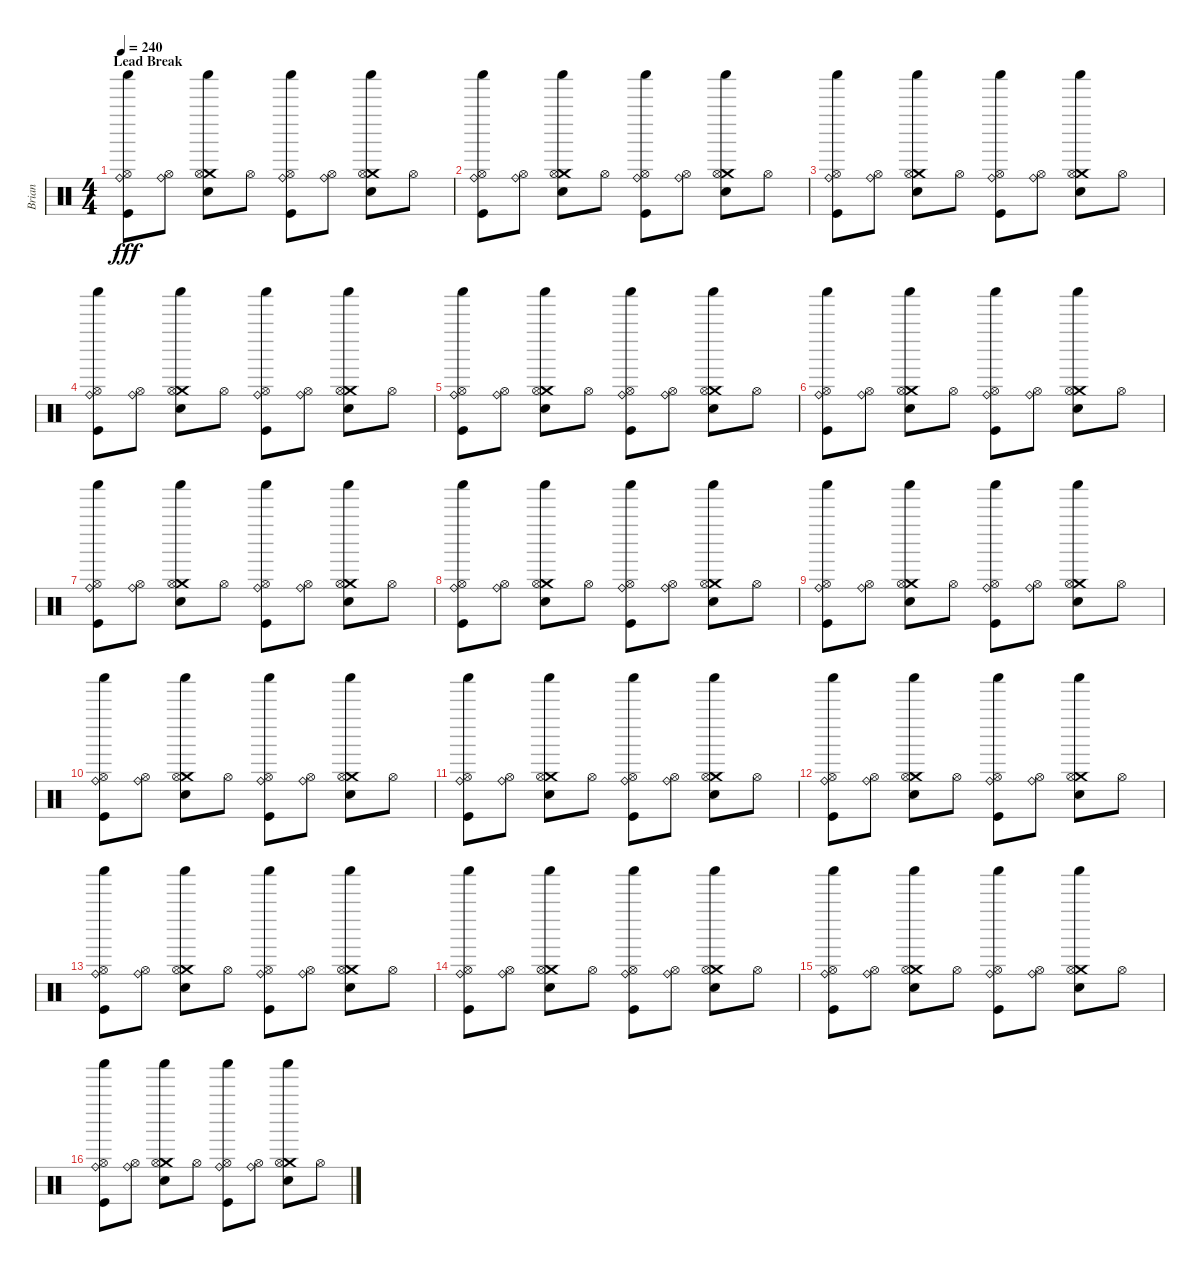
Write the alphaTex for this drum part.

\track ("Brian" "Brian") {instrument percussion}
\staff {score}
\articulation defaults
\ts (4 4)
\section ("" "Lead Break")
\tempo 240
\clef neutral
\ks c
("Shaker (hit)" "Ride (bell)" "Hi-Hat (open)" "Kick (hit)").8{dy fff} ("Ride (bell)" "Hi-Hat (open)").8 ("Shaker (hit)" "Crash medium (hit)" "Hi-Hat (open)" "Snare (hit) 2").8 "Hi-Hat (open)".8 ("Shaker (hit)" "Ride (bell)" "Hi-Hat (open)" "Kick (hit)").8 ("Ride (bell)" "Hi-Hat (open)").8 ("Shaker (hit)" "Crash medium (hit)" "Hi-Hat (open)" "Snare (hit) 2").8 "Hi-Hat (open)".8 |
("Shaker (hit)" "Ride (bell)" "Hi-Hat (open)" "Kick (hit)").8 ("Ride (bell)" "Hi-Hat (open)").8 ("Shaker (hit)" "Crash medium (hit)" "Hi-Hat (open)" "Snare (hit) 2").8 "Hi-Hat (open)".8 ("Shaker (hit)" "Ride (bell)" "Hi-Hat (open)" "Kick (hit)").8 ("Ride (bell)" "Hi-Hat (open)").8 ("Shaker (hit)" "Crash medium (hit)" "Hi-Hat (open)" "Snare (hit) 2").8 "Hi-Hat (open)".8 |
("Shaker (hit)" "Ride (bell)" "Hi-Hat (open)" "Kick (hit)").8 ("Ride (bell)" "Hi-Hat (open)").8 ("Shaker (hit)" "Crash medium (hit)" "Hi-Hat (open)" "Snare (hit) 2").8 "Hi-Hat (open)".8 ("Shaker (hit)" "Ride (bell)" "Hi-Hat (open)" "Kick (hit)").8 ("Ride (bell)" "Hi-Hat (open)").8 ("Shaker (hit)" "Crash medium (hit)" "Hi-Hat (open)" "Snare (hit) 2").8 "Hi-Hat (open)".8 |
("Shaker (hit)" "Ride (bell)" "Hi-Hat (open)" "Kick (hit)").8 ("Ride (bell)" "Hi-Hat (open)").8 ("Shaker (hit)" "Crash medium (hit)" "Hi-Hat (open)" "Snare (hit) 2").8 "Hi-Hat (open)".8 ("Shaker (hit)" "Ride (bell)" "Hi-Hat (open)" "Kick (hit)").8 ("Ride (bell)" "Hi-Hat (open)").8 ("Shaker (hit)" "Crash medium (hit)" "Hi-Hat (open)" "Snare (hit) 2").8 "Hi-Hat (open)".8 |
("Shaker (hit)" "Ride (bell)" "Hi-Hat (open)" "Kick (hit)").8 ("Ride (bell)" "Hi-Hat (open)").8 ("Shaker (hit)" "Crash medium (hit)" "Hi-Hat (open)" "Snare (hit) 2").8 "Hi-Hat (open)".8 ("Shaker (hit)" "Ride (bell)" "Hi-Hat (open)" "Kick (hit)").8 ("Ride (bell)" "Hi-Hat (open)").8 ("Shaker (hit)" "Crash medium (hit)" "Hi-Hat (open)" "Snare (hit) 2").8 "Hi-Hat (open)".8 |
("Shaker (hit)" "Ride (bell)" "Hi-Hat (open)" "Kick (hit)").8 ("Ride (bell)" "Hi-Hat (open)").8 ("Shaker (hit)" "Crash medium (hit)" "Hi-Hat (open)" "Snare (hit) 2").8 "Hi-Hat (open)".8 ("Shaker (hit)" "Ride (bell)" "Hi-Hat (open)" "Kick (hit)").8 ("Ride (bell)" "Hi-Hat (open)").8 ("Shaker (hit)" "Crash medium (hit)" "Hi-Hat (open)" "Snare (hit) 2").8 "Hi-Hat (open)".8 |
("Shaker (hit)" "Ride (bell)" "Hi-Hat (open)" "Kick (hit)").8 ("Ride (bell)" "Hi-Hat (open)").8 ("Shaker (hit)" "Crash medium (hit)" "Hi-Hat (open)" "Snare (hit) 2").8 "Hi-Hat (open)".8 ("Shaker (hit)" "Ride (bell)" "Hi-Hat (open)" "Kick (hit)").8 ("Ride (bell)" "Hi-Hat (open)").8 ("Shaker (hit)" "Crash medium (hit)" "Hi-Hat (open)" "Snare (hit) 2").8 "Hi-Hat (open)".8 |
("Shaker (hit)" "Ride (bell)" "Hi-Hat (open)" "Kick (hit)").8 ("Ride (bell)" "Hi-Hat (open)").8 ("Shaker (hit)" "Crash medium (hit)" "Hi-Hat (open)" "Snare (hit) 2").8 "Hi-Hat (open)".8 ("Shaker (hit)" "Ride (bell)" "Hi-Hat (open)" "Kick (hit)").8 ("Ride (bell)" "Hi-Hat (open)").8 ("Shaker (hit)" "Crash medium (hit)" "Hi-Hat (open)" "Snare (hit) 2").8 "Hi-Hat (open)".8 |
("Shaker (hit)" "Ride (bell)" "Hi-Hat (open)" "Kick (hit)").8 ("Ride (bell)" "Hi-Hat (open)").8 ("Shaker (hit)" "Crash medium (hit)" "Hi-Hat (open)" "Snare (hit) 2").8 "Hi-Hat (open)".8 ("Shaker (hit)" "Ride (bell)" "Hi-Hat (open)" "Kick (hit)").8 ("Ride (bell)" "Hi-Hat (open)").8 ("Shaker (hit)" "Crash medium (hit)" "Hi-Hat (open)" "Snare (hit) 2").8 "Hi-Hat (open)".8 |
("Shaker (hit)" "Ride (bell)" "Hi-Hat (open)" "Kick (hit)").8 ("Ride (bell)" "Hi-Hat (open)").8 ("Shaker (hit)" "Crash medium (hit)" "Hi-Hat (open)" "Snare (hit) 2").8 "Hi-Hat (open)".8 ("Shaker (hit)" "Ride (bell)" "Hi-Hat (open)" "Kick (hit)").8 ("Ride (bell)" "Hi-Hat (open)").8 ("Shaker (hit)" "Crash medium (hit)" "Hi-Hat (open)" "Snare (hit) 2").8 "Hi-Hat (open)".8 |
("Shaker (hit)" "Ride (bell)" "Hi-Hat (open)" "Kick (hit)").8 ("Ride (bell)" "Hi-Hat (open)").8 ("Shaker (hit)" "Crash medium (hit)" "Hi-Hat (open)" "Snare (hit) 2").8 "Hi-Hat (open)".8 ("Shaker (hit)" "Ride (bell)" "Hi-Hat (open)" "Kick (hit)").8 ("Ride (bell)" "Hi-Hat (open)").8 ("Shaker (hit)" "Crash medium (hit)" "Hi-Hat (open)" "Snare (hit) 2").8 "Hi-Hat (open)".8 |
("Shaker (hit)" "Ride (bell)" "Hi-Hat (open)" "Kick (hit)").8 ("Ride (bell)" "Hi-Hat (open)").8 ("Shaker (hit)" "Crash medium (hit)" "Hi-Hat (open)" "Snare (hit) 2").8 "Hi-Hat (open)".8 ("Shaker (hit)" "Ride (bell)" "Hi-Hat (open)" "Kick (hit)").8 ("Ride (bell)" "Hi-Hat (open)").8 ("Shaker (hit)" "Crash medium (hit)" "Hi-Hat (open)" "Snare (hit) 2").8 "Hi-Hat (open)".8 |
("Shaker (hit)" "Ride (bell)" "Hi-Hat (open)" "Kick (hit)").8 ("Ride (bell)" "Hi-Hat (open)").8 ("Shaker (hit)" "Crash medium (hit)" "Hi-Hat (open)" "Snare (hit) 2").8 "Hi-Hat (open)".8 ("Shaker (hit)" "Ride (bell)" "Hi-Hat (open)" "Kick (hit)").8 ("Ride (bell)" "Hi-Hat (open)").8 ("Shaker (hit)" "Crash medium (hit)" "Hi-Hat (open)" "Snare (hit) 2").8 "Hi-Hat (open)".8 |
("Shaker (hit)" "Ride (bell)" "Hi-Hat (open)" "Kick (hit)").8 ("Ride (bell)" "Hi-Hat (open)").8 ("Shaker (hit)" "Crash medium (hit)" "Hi-Hat (open)" "Snare (hit) 2").8 "Hi-Hat (open)".8 ("Shaker (hit)" "Ride (bell)" "Hi-Hat (open)" "Kick (hit)").8 ("Ride (bell)" "Hi-Hat (open)").8 ("Shaker (hit)" "Crash medium (hit)" "Hi-Hat (open)" "Snare (hit) 2").8 "Hi-Hat (open)".8 |
("Shaker (hit)" "Ride (bell)" "Hi-Hat (open)" "Kick (hit)").8 ("Ride (bell)" "Hi-Hat (open)").8 ("Shaker (hit)" "Crash medium (hit)" "Hi-Hat (open)" "Snare (hit) 2").8 "Hi-Hat (open)".8 ("Shaker (hit)" "Ride (bell)" "Hi-Hat (open)" "Kick (hit)").8 ("Ride (bell)" "Hi-Hat (open)").8 ("Shaker (hit)" "Crash medium (hit)" "Hi-Hat (open)" "Snare (hit) 2").8 "Hi-Hat (open)".8 |
("Shaker (hit)" "Ride (bell)" "Hi-Hat (open)" "Kick (hit)").8 ("Ride (bell)" "Hi-Hat (open)").8 ("Shaker (hit)" "Crash medium (hit)" "Hi-Hat (open)" "Snare (hit) 2").8 "Hi-Hat (open)".8 ("Shaker (hit)" "Ride (bell)" "Hi-Hat (open)" "Kick (hit)").8 ("Ride (bell)" "Hi-Hat (open)").8 ("Shaker (hit)" "Crash medium (hit)" "Hi-Hat (open)" "Snare (hit) 2").8 "Hi-Hat (open)".8
